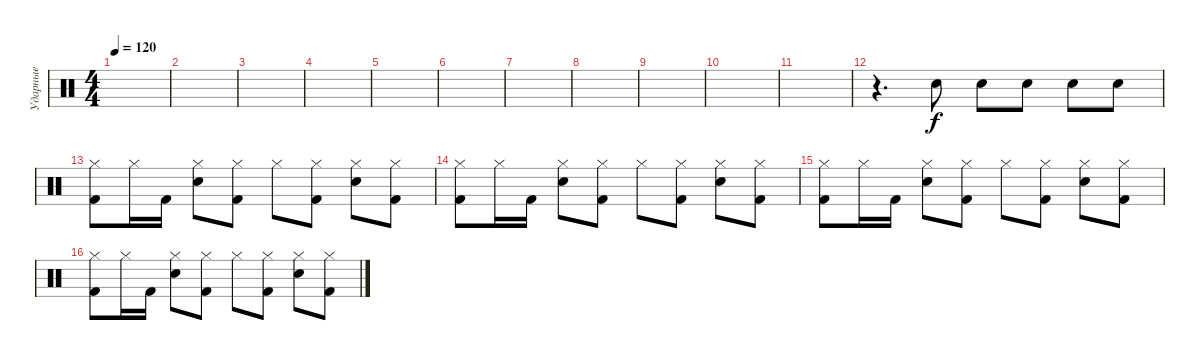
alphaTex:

\track ("Ударные" "Ударные") {instrument percussion}
\staff {score}
\articulation defaults
\ts (4 4)
\tempo 120
\clef neutral
\ks c
|
|
|
|
|
|
|
|
|
|
|
r.4{d} "Electric Snare (hit)".8 "Electric Snare (hit)".8 "Electric Snare (hit)".8 "Electric Snare (hit)".8 "Electric Snare (hit)".8 |
("Hi-Hat (closed)" "Kick (hit) 2").8 "Hi-Hat (closed)".16 "Kick (hit) 2".16 ("Hi-Hat (closed)" "Electric Snare (hit)").8 ("Hi-Hat (closed)" "Kick (hit) 2").8 "Hi-Hat (closed)".8 ("Hi-Hat (closed)" "Kick (hit) 2").8 ("Hi-Hat (closed)" "Electric Snare (hit)").8 ("Hi-Hat (closed)" "Kick (hit) 2").8 |
("Hi-Hat (closed)" "Kick (hit) 2").8 "Hi-Hat (closed)".16 "Kick (hit) 2".16 ("Hi-Hat (closed)" "Electric Snare (hit)").8 ("Hi-Hat (closed)" "Kick (hit) 2").8 "Hi-Hat (closed)".8 ("Hi-Hat (closed)" "Kick (hit) 2").8 ("Hi-Hat (closed)" "Electric Snare (hit)").8 ("Hi-Hat (closed)" "Kick (hit) 2").8 |
("Hi-Hat (closed)" "Kick (hit) 2").8 "Hi-Hat (closed)".16 "Kick (hit) 2".16 ("Hi-Hat (closed)" "Electric Snare (hit)").8 ("Hi-Hat (closed)" "Kick (hit) 2").8 "Hi-Hat (closed)".8 ("Hi-Hat (closed)" "Kick (hit) 2").8 ("Hi-Hat (closed)" "Electric Snare (hit)").8 ("Hi-Hat (closed)" "Kick (hit) 2").8 |
("Hi-Hat (closed)" "Kick (hit) 2").8 "Hi-Hat (closed)".16 "Kick (hit) 2".16 ("Hi-Hat (closed)" "Electric Snare (hit)").8 ("Hi-Hat (closed)" "Kick (hit) 2").8 "Hi-Hat (closed)".8 ("Hi-Hat (closed)" "Kick (hit) 2").8 ("Hi-Hat (closed)" "Electric Snare (hit)").8 ("Hi-Hat (closed)" "Kick (hit) 2").8
